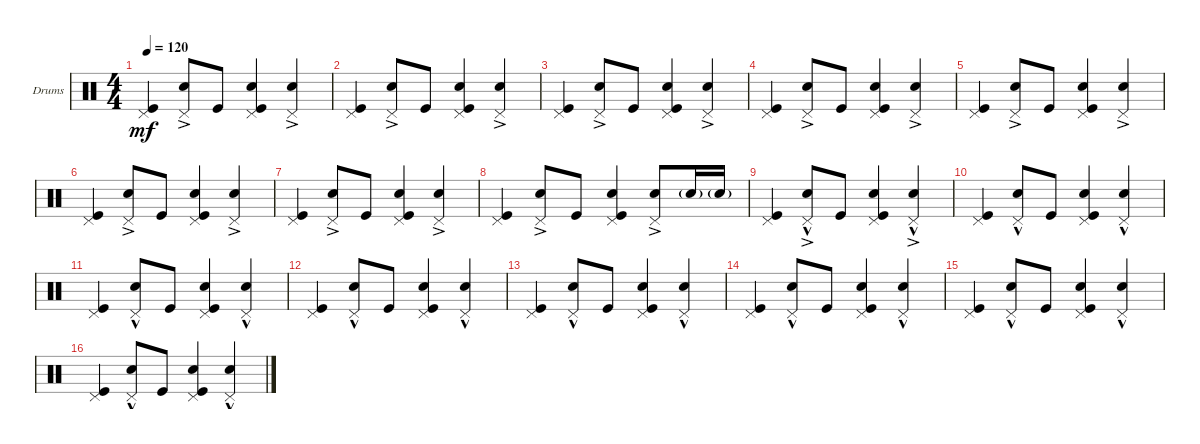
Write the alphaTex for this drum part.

\defaultSystemsLayout 4
\bracketExtendMode groupsimilarinstruments
\firstSystemTrackNameOrientation horizontal
\otherSystemsTrackNameOrientation horizontal
\track ("Drumkit" "Drums") {instrument percussion}
\staff {score}
\articulation defaults
\ts (4 4)
\tempo 120
\clef neutral
\ks c
("Kick (hit)" "Pedal Hi-Hat (hit)").4{dy mf} ("Snare (hit) 2"{ac} "Pedal Hi-Hat (hit)").8 "Kick (hit)".8 ("Snare (hit) 2" "Kick (hit)" "Pedal Hi-Hat (hit)").4 ("Snare (hit) 2"{ac} "Pedal Hi-Hat (hit)").4 |
("Kick (hit)" "Pedal Hi-Hat (hit)").4 ("Snare (hit) 2"{ac} "Pedal Hi-Hat (hit)").8 "Kick (hit)".8 ("Snare (hit) 2" "Kick (hit)" "Pedal Hi-Hat (hit)").4 ("Snare (hit) 2"{ac} "Pedal Hi-Hat (hit)").4 |
("Kick (hit)" "Pedal Hi-Hat (hit)").4 ("Snare (hit) 2"{ac} "Pedal Hi-Hat (hit)").8 "Kick (hit)".8 ("Snare (hit) 2" "Kick (hit)" "Pedal Hi-Hat (hit)").4 ("Snare (hit) 2"{ac} "Pedal Hi-Hat (hit)").4 |
("Kick (hit)" "Pedal Hi-Hat (hit)").4 ("Snare (hit) 2"{ac} "Pedal Hi-Hat (hit)").8 "Kick (hit)".8 ("Snare (hit) 2" "Kick (hit)" "Pedal Hi-Hat (hit)").4 ("Snare (hit) 2"{ac} "Pedal Hi-Hat (hit)").4 |
("Kick (hit)" "Pedal Hi-Hat (hit)").4 ("Snare (hit) 2"{ac} "Pedal Hi-Hat (hit)").8 "Kick (hit)".8 ("Snare (hit) 2" "Kick (hit)" "Pedal Hi-Hat (hit)").4 ("Snare (hit) 2"{ac} "Pedal Hi-Hat (hit)").4 |
("Kick (hit)" "Pedal Hi-Hat (hit)").4 ("Snare (hit) 2"{ac} "Pedal Hi-Hat (hit)").8 "Kick (hit)".8 ("Snare (hit) 2" "Kick (hit)" "Pedal Hi-Hat (hit)").4 ("Snare (hit) 2"{ac} "Pedal Hi-Hat (hit)").4 |
("Kick (hit)" "Pedal Hi-Hat (hit)").4 ("Snare (hit) 2"{ac} "Pedal Hi-Hat (hit)").8 "Kick (hit)".8 ("Snare (hit) 2" "Kick (hit)" "Pedal Hi-Hat (hit)").4 ("Snare (hit) 2"{ac} "Pedal Hi-Hat (hit)").4 |
("Kick (hit)" "Pedal Hi-Hat (hit)").4 ("Snare (hit) 2"{ac} "Pedal Hi-Hat (hit)").8 "Kick (hit)".8 ("Snare (hit) 2" "Kick (hit)" "Pedal Hi-Hat (hit)").4 ("Snare (hit) 2"{ac} "Pedal Hi-Hat (hit)").8 "Snare (hit) 2"{g}.16 "Snare (hit) 2"{g}.16 |
("Kick (hit)" "Pedal Hi-Hat (hit)").4 ("Snare (hit) 2"{hac} "Pedal Hi-Hat (hit)"{ac}).8 "Kick (hit)".8 ("Snare (hit) 2" "Kick (hit)" "Pedal Hi-Hat (hit)").4 ("Snare (hit) 2"{hac} "Pedal Hi-Hat (hit)"{ac}).4 |
("Kick (hit)" "Pedal Hi-Hat (hit)").4 ("Snare (hit) 2"{hac} "Pedal Hi-Hat (hit)").8 "Kick (hit)".8 ("Snare (hit) 2" "Kick (hit)" "Pedal Hi-Hat (hit)").4 ("Snare (hit) 2"{hac} "Pedal Hi-Hat (hit)").4 |
("Kick (hit)" "Pedal Hi-Hat (hit)").4 ("Snare (hit) 2"{hac} "Pedal Hi-Hat (hit)").8 "Kick (hit)".8 ("Snare (hit) 2" "Kick (hit)" "Pedal Hi-Hat (hit)").4 ("Snare (hit) 2"{hac} "Pedal Hi-Hat (hit)").4 |
("Kick (hit)" "Pedal Hi-Hat (hit)").4 ("Snare (hit) 2"{hac} "Pedal Hi-Hat (hit)").8 "Kick (hit)".8 ("Snare (hit) 2" "Kick (hit)" "Pedal Hi-Hat (hit)").4 ("Snare (hit) 2"{hac} "Pedal Hi-Hat (hit)").4 |
("Kick (hit)" "Pedal Hi-Hat (hit)").4 ("Snare (hit) 2"{hac} "Pedal Hi-Hat (hit)").8 "Kick (hit)".8 ("Snare (hit) 2" "Kick (hit)" "Pedal Hi-Hat (hit)").4 ("Snare (hit) 2"{hac} "Pedal Hi-Hat (hit)").4 |
("Kick (hit)" "Pedal Hi-Hat (hit)").4 ("Snare (hit) 2"{hac} "Pedal Hi-Hat (hit)").8 "Kick (hit)".8 ("Snare (hit) 2" "Kick (hit)" "Pedal Hi-Hat (hit)").4 ("Snare (hit) 2"{hac} "Pedal Hi-Hat (hit)").4 |
("Kick (hit)" "Pedal Hi-Hat (hit)").4 ("Snare (hit) 2"{hac} "Pedal Hi-Hat (hit)").8 "Kick (hit)".8 ("Snare (hit) 2" "Kick (hit)" "Pedal Hi-Hat (hit)").4 ("Snare (hit) 2"{hac} "Pedal Hi-Hat (hit)").4 |
("Kick (hit)" "Pedal Hi-Hat (hit)").4 ("Snare (hit) 2"{hac} "Pedal Hi-Hat (hit)").8 "Kick (hit)".8 ("Snare (hit) 2" "Kick (hit)" "Pedal Hi-Hat (hit)").4 ("Snare (hit) 2"{hac} "Pedal Hi-Hat (hit)").4
